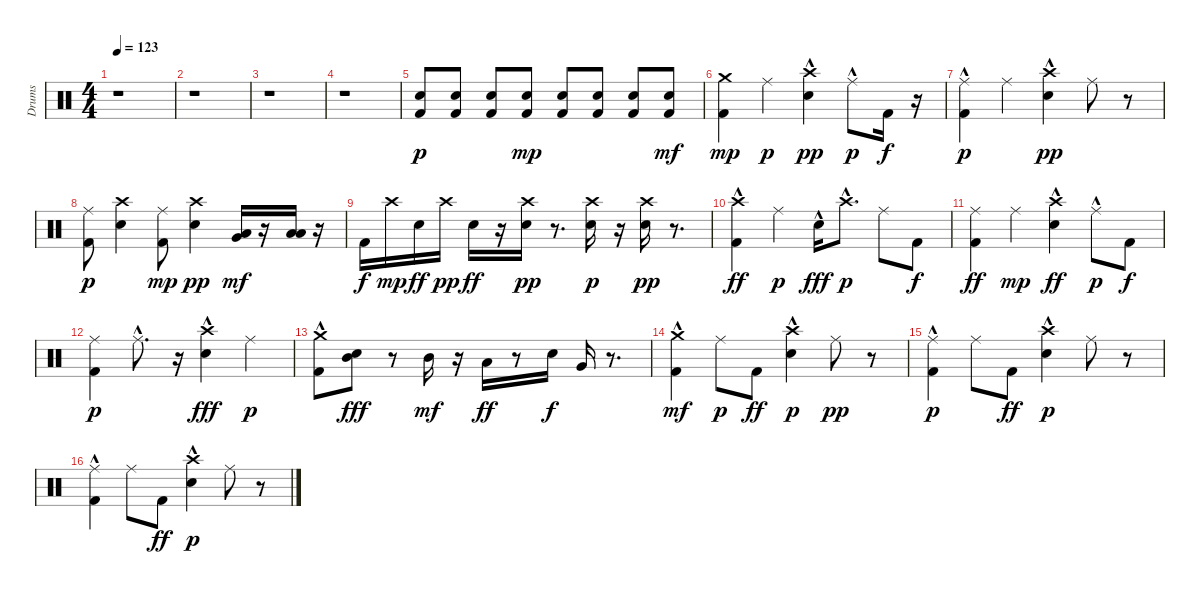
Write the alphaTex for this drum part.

\track ("Drums" "Drums") {instrument percussion}
\staff {score}
\articulation defaults
\ts (4 4)
\tempo 123
\clef neutral
\ks c
r.1{dy pp} |
r.1 |
r.1 |
r.1 |
("Electric Snare (hit)" "Kick (hit) 2").8{dy p} ("Electric Snare (hit)" "Kick (hit) 2").8 ("Kick (hit) 2" "Electric Snare (hit)").8 ("Electric Snare (hit)" "Kick (hit) 2").8{dy mp} ("Kick (hit) 2" "Electric Snare (hit)").8 ("Electric Snare (hit)" "Kick (hit) 2").8 ("Kick (hit) 2" "Electric Snare (hit)").8 ("Electric Snare (hit)" "Kick (hit) 2").8{dy mf} |
("Kick (hit) 2" "Crash medium (hit)").4{dy mp} "Ride (middle)".4{dy p} ("Electric Snare (hit)"{hac} "Crash high (hit)").4{dy pp} "Ride (middle)"{hac}.8{dy p} "Kick (hit) 2".16{dy f} r.16 |
("Kick (hit) 2" "Ride (middle)"{hac}).4{dy p} "Ride (middle)".4 ("Electric Snare (hit)"{hac} "Crash high (hit)").4{dy pp} "Ride (middle)".8 r.8 |
("Kick (hit) 2" "Ride (middle)").8{dy p} ("Electric Snare (hit)" "Crash high (hit)").4 ("Kick (hit) 2" "Ride (middle)").8{dy mp} ("Electric Snare (hit)" "Crash high (hit)").4{dy pp} ("Low Tom (hit)" "Very Low Tom (hit)").16{dy mf} r.16 ("Low Tom (hit)" "Low Floor Tom (hit)").16 r.16 |
"Kick (hit) 2".16{dy f} "Crash high (hit)".16{dy mp} "Electric Snare (hit)".16{dy ff} "Crash high (hit)".16{dy pp} "Electric Snare (hit)".16{dy ff} r.16 ("Electric Snare (hit)" "Crash high (hit)").16{dy pp} r.8{d} ("Electric Snare (hit)" "Crash high (hit)").16{dy p} r.16 ("Electric Snare (hit)" "Crash high (hit)").16{dy pp} r.8{d} |
("Crash high (hit)" "Kick (hit) 2"{hac}).4{dy ff} "Ride (middle)".4{dy p} "Electric Snare (hit)"{hac}.16{dy fff} "Crash high (hit)"{hac}.8{d dy p} "Ride (middle)".8 "Kick (hit) 2".8{dy f} |
("Ride (middle)" "Kick (hit) 2").4{dy ff} "Ride (middle)".4{dy mp} ("Crash high (hit)" "Electric Snare (hit)"{hac}).4{dy ff} "Ride (middle)"{hac}.8{dy p} "Kick (hit) 2".8{dy f} |
("Ride (middle)" "Kick (hit) 2").4{dy p} "Ride (middle)"{hac}.8{d} r.16 ("Crash high (hit)" "Electric Snare (hit)"{hac}).4{dy fff} "Ride (middle)".4{dy p} |
("Crash medium (hit)"{hac} "Kick (hit) 2").8 ("Electric Snare (hit)" "Mid Tom (hit)").8{dy fff} r.8 "Mid Tom (hit)".16{dy mf} r.16 "Low Tom (hit)".16{dy ff} r.8 "Electric Snare (hit)".16{dy f} "Very Low Tom (hit)".16 r.8{d} |
("Kick (hit) 2"{hac} "Crash medium (hit)").4{dy mf} "Ride (middle)".8{dy p} "Kick (hit) 2".8{dy ff} ("Electric Snare (hit)"{hac} "Crash high (hit)").4{dy p} "Ride (middle)".8{dy pp} r.8 |
("Kick (hit) 2"{hac} "Ride (middle)").4{dy p} "Ride (middle)".8 "Kick (hit) 2".8{dy ff} ("Electric Snare (hit)"{hac} "Crash high (hit)").4{dy p} "Ride (middle)".8 r.8 |
("Kick (hit) 2"{hac} "Ride (middle)").4 "Ride (middle)".8 "Kick (hit) 2".8{dy ff} ("Electric Snare (hit)"{hac} "Crash high (hit)").4{dy p} "Ride (middle)".8 r.8
